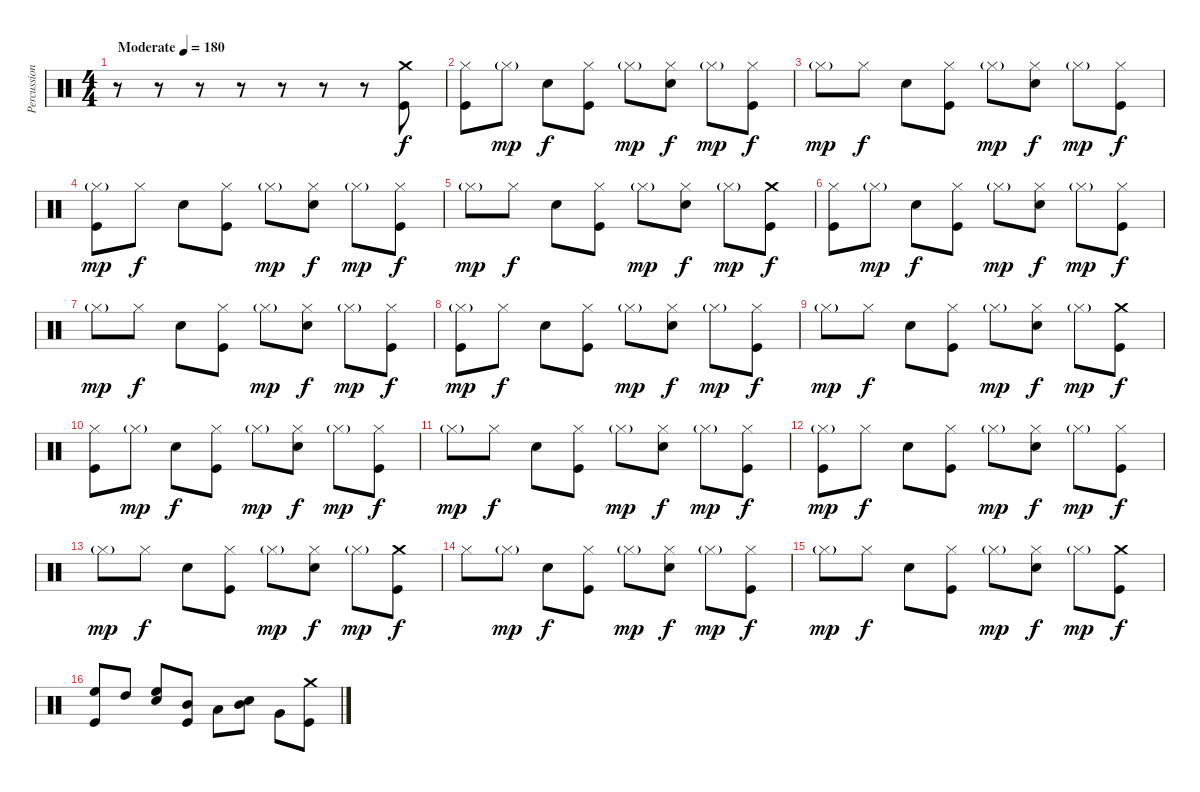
\track ("Percussion" "Percussion") {instrument percussion}
\staff {score}
\articulation defaults
\ts (4 4)
\tempo (180 "Moderate")
\clef neutral
\ks c
r.8{dy f} r.8 r.8 r.8 r.8 r.8 r.8 ("Crash medium (hit)" "Kick (hit)").8 |
("Hi-Hat (closed)" "Kick (hit)").8 "Hi-Hat (closed)"{g}.8{dy mp} "Snare (hit) 2".8{dy f} ("Hi-Hat (closed)" "Kick (hit)").8 "Hi-Hat (closed)"{g}.8{dy mp} ("Hi-Hat (closed)" "Snare (hit) 2").8{dy f} "Hi-Hat (closed)"{g}.8{dy mp} ("Hi-Hat (closed)" "Kick (hit)").8{dy f} |
"Hi-Hat (closed)"{g}.8{dy mp} "Hi-Hat (closed)".8{dy f} "Snare (hit) 2".8 ("Hi-Hat (closed)" "Kick (hit)").8 "Hi-Hat (closed)"{g}.8{dy mp} ("Hi-Hat (closed)" "Snare (hit) 2").8{dy f} "Hi-Hat (closed)"{g}.8{dy mp} ("Hi-Hat (closed)" "Kick (hit)").8{dy f} |
("Hi-Hat (closed)"{g} "Kick (hit)").8{dy mp} "Hi-Hat (closed)".8{dy f} "Snare (hit) 2".8 ("Hi-Hat (closed)" "Kick (hit)").8 "Hi-Hat (closed)"{g}.8{dy mp} ("Hi-Hat (closed)" "Snare (hit) 2").8{dy f} "Hi-Hat (closed)"{g}.8{dy mp} ("Hi-Hat (closed)" "Kick (hit)").8{dy f} |
"Hi-Hat (closed)"{g}.8{dy mp} "Hi-Hat (closed)".8{dy f} "Snare (hit) 2".8 ("Hi-Hat (closed)" "Kick (hit)").8 "Hi-Hat (closed)"{g}.8{dy mp} ("Hi-Hat (closed)" "Snare (hit) 2").8{dy f} "Hi-Hat (closed)"{g}.8{dy mp} ("Crash medium (hit)" "Kick (hit)").8{dy f} |
("Hi-Hat (closed)" "Kick (hit)").8 "Hi-Hat (closed)"{g}.8{dy mp} "Snare (hit) 2".8{dy f} ("Hi-Hat (closed)" "Kick (hit)").8 "Hi-Hat (closed)"{g}.8{dy mp} ("Hi-Hat (closed)" "Snare (hit) 2").8{dy f} "Hi-Hat (closed)"{g}.8{dy mp} ("Hi-Hat (closed)" "Kick (hit)").8{dy f} |
"Hi-Hat (closed)"{g}.8{dy mp} "Hi-Hat (closed)".8{dy f} "Snare (hit) 2".8 ("Hi-Hat (closed)" "Kick (hit)").8 "Hi-Hat (closed)"{g}.8{dy mp} ("Hi-Hat (closed)" "Snare (hit) 2").8{dy f} "Hi-Hat (closed)"{g}.8{dy mp} ("Hi-Hat (closed)" "Kick (hit)").8{dy f} |
("Hi-Hat (closed)"{g} "Kick (hit)").8{dy mp} "Hi-Hat (closed)".8{dy f} "Snare (hit) 2".8 ("Hi-Hat (closed)" "Kick (hit)").8 "Hi-Hat (closed)"{g}.8{dy mp} ("Hi-Hat (closed)" "Snare (hit) 2").8{dy f} "Hi-Hat (closed)"{g}.8{dy mp} ("Hi-Hat (closed)" "Kick (hit)").8{dy f} |
"Hi-Hat (closed)"{g}.8{dy mp} "Hi-Hat (closed)".8{dy f} "Snare (hit) 2".8 ("Hi-Hat (closed)" "Kick (hit)").8 "Hi-Hat (closed)"{g}.8{dy mp} ("Hi-Hat (closed)" "Snare (hit) 2").8{dy f} "Hi-Hat (closed)"{g}.8{dy mp} ("Crash medium (hit)" "Kick (hit)").8{dy f} |
("Hi-Hat (closed)" "Kick (hit)").8 "Hi-Hat (closed)"{g}.8{dy mp} "Snare (hit) 2".8{dy f} ("Hi-Hat (closed)" "Kick (hit)").8 "Hi-Hat (closed)"{g}.8{dy mp} ("Hi-Hat (closed)" "Snare (hit) 2").8{dy f} "Hi-Hat (closed)"{g}.8{dy mp} ("Hi-Hat (closed)" "Kick (hit)").8{dy f} |
"Hi-Hat (closed)"{g}.8{dy mp} "Hi-Hat (closed)".8{dy f} "Snare (hit) 2".8 ("Hi-Hat (closed)" "Kick (hit)").8 "Hi-Hat (closed)"{g}.8{dy mp} ("Hi-Hat (closed)" "Snare (hit) 2").8{dy f} "Hi-Hat (closed)"{g}.8{dy mp} ("Hi-Hat (closed)" "Kick (hit)").8{dy f} |
("Hi-Hat (closed)"{g} "Kick (hit)").8{dy mp} "Hi-Hat (closed)".8{dy f} "Snare (hit) 2".8 ("Hi-Hat (closed)" "Kick (hit)").8 "Hi-Hat (closed)"{g}.8{dy mp} ("Hi-Hat (closed)" "Snare (hit) 2").8{dy f} "Hi-Hat (closed)"{g}.8{dy mp} ("Hi-Hat (closed)" "Kick (hit)").8{dy f} |
"Hi-Hat (closed)"{g}.8{dy mp} "Hi-Hat (closed)".8{dy f} "Snare (hit) 2".8 ("Hi-Hat (closed)" "Kick (hit)").8 "Hi-Hat (closed)"{g}.8{dy mp} ("Hi-Hat (closed)" "Snare (hit) 2").8{dy f} "Hi-Hat (closed)"{g}.8{dy mp} ("Crash medium (hit)" "Kick (hit)").8{dy f} |
"Hi-Hat (closed)".8 "Hi-Hat (closed)"{g}.8{dy mp} "Snare (hit) 2".8{dy f} ("Hi-Hat (closed)" "Kick (hit)").8 "Hi-Hat (closed)"{g}.8{dy mp} ("Hi-Hat (closed)" "Snare (hit) 2").8{dy f} "Hi-Hat (closed)"{g}.8{dy mp} ("Hi-Hat (closed)" "Kick (hit)").8{dy f} |
"Hi-Hat (closed)"{g}.8{dy mp} "Hi-Hat (closed)".8{dy f} "Snare (hit) 2".8 ("Hi-Hat (closed)" "Kick (hit)").8 "Hi-Hat (closed)"{g}.8{dy mp} ("Hi-Hat (closed)" "Snare (hit) 2").8{dy f} "Hi-Hat (closed)"{g}.8{dy mp} ("Crash medium (hit)" "Kick (hit)").8{dy f} |
("High Floor Tom (hit)" "Kick (hit)").8 "High Tom (hit)".8 ("High Floor Tom (hit)" "Snare (hit) 2").8 ("Mid Tom (hit)" "Kick (hit)").8 "Low Tom (hit)".8 ("Mid Tom (hit)" "Snare (hit) 2").8 "Very Low Tom (hit)".8 ("Crash medium (hit)" "Kick (hit)").8
